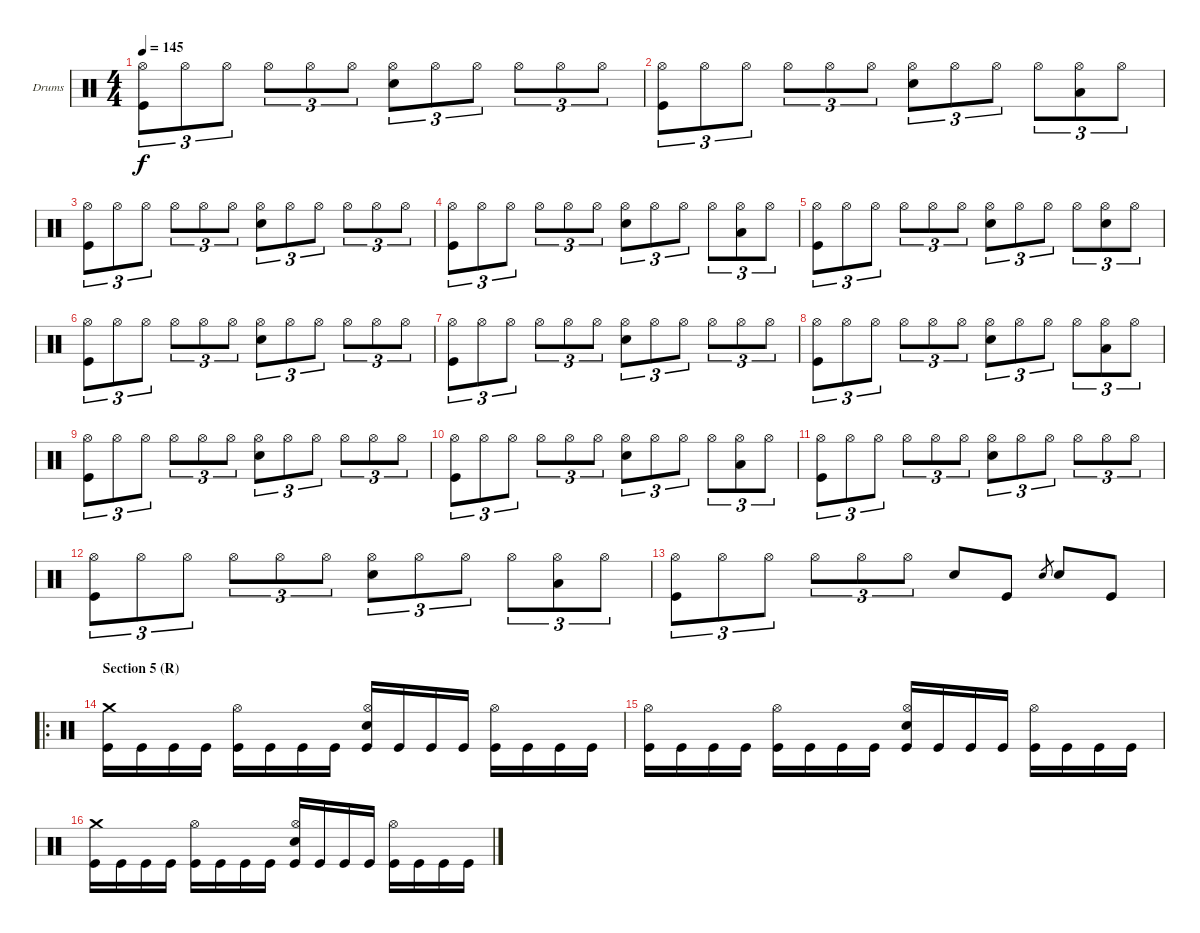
\defaultSystemsLayout 4
\bracketExtendMode groupsimilarinstruments
\firstSystemTrackNameOrientation horizontal
\otherSystemsTrackNameOrientation horizontal
\track ("Drums" "Drums") {instrument percussion}
\staff {score}
\articulation defaults
\ts (4 4)
\tempo 145
\clef neutral
\ks c
("Kick (hit)" "Hi-Hat (open)").8{tu (3 2) dy f} "Hi-Hat (open)".8{tu (3 2)} "Hi-Hat (open)".8{tu (3 2)} "Hi-Hat (open)".8{tu (3 2)} "Hi-Hat (open)".8{tu (3 2)} "Hi-Hat (open)".8{tu (3 2)} ("Snare (hit) 2" "Hi-Hat (open)").8{tu (3 2)} "Hi-Hat (open)".8{tu (3 2)} "Hi-Hat (open)".8{tu (3 2)} "Hi-Hat (open)".8{tu (3 2)} "Hi-Hat (open)".8{tu (3 2)} "Hi-Hat (open)".8{tu (3 2)} |
("Kick (hit)" "Hi-Hat (open)").8{tu (3 2)} "Hi-Hat (open)".8{tu (3 2)} "Hi-Hat (open)".8{tu (3 2)} "Hi-Hat (open)".8{tu (3 2)} "Hi-Hat (open)".8{tu (3 2)} "Hi-Hat (open)".8{tu (3 2)} ("Snare (hit) 2" "Hi-Hat (open)").8{tu (3 2)} "Hi-Hat (open)".8{tu (3 2)} "Hi-Hat (open)".8{tu (3 2)} "Hi-Hat (open)".8{tu (3 2)} ("Hi-Hat (open)" "Low Tom (hit)").8{tu (3 2)} "Hi-Hat (open)".8{tu (3 2)} |
("Kick (hit)" "Hi-Hat (open)").8{tu (3 2)} "Hi-Hat (open)".8{tu (3 2)} "Hi-Hat (open)".8{tu (3 2)} "Hi-Hat (open)".8{tu (3 2)} "Hi-Hat (open)".8{tu (3 2)} "Hi-Hat (open)".8{tu (3 2)} ("Snare (hit) 2" "Hi-Hat (open)").8{tu (3 2)} "Hi-Hat (open)".8{tu (3 2)} "Hi-Hat (open)".8{tu (3 2)} "Hi-Hat (open)".8{tu (3 2)} "Hi-Hat (open)".8{tu (3 2)} "Hi-Hat (open)".8{tu (3 2)} |
("Kick (hit)" "Hi-Hat (open)").8{tu (3 2)} "Hi-Hat (open)".8{tu (3 2)} "Hi-Hat (open)".8{tu (3 2)} "Hi-Hat (open)".8{tu (3 2)} "Hi-Hat (open)".8{tu (3 2)} "Hi-Hat (open)".8{tu (3 2)} ("Snare (hit) 2" "Hi-Hat (open)").8{tu (3 2)} "Hi-Hat (open)".8{tu (3 2)} "Hi-Hat (open)".8{tu (3 2)} "Hi-Hat (open)".8{tu (3 2)} ("Hi-Hat (open)" "Low Tom (hit)").8{tu (3 2)} "Hi-Hat (open)".8{tu (3 2)} |
("Kick (hit)" "Hi-Hat (open)").8{tu (3 2)} "Hi-Hat (open)".8{tu (3 2)} "Hi-Hat (open)".8{tu (3 2)} "Hi-Hat (open)".8{tu (3 2)} "Hi-Hat (open)".8{tu (3 2)} "Hi-Hat (open)".8{tu (3 2)} ("Snare (hit) 2" "Hi-Hat (open)").8{tu (3 2)} "Hi-Hat (open)".8{tu (3 2)} "Hi-Hat (open)".8{tu (3 2)} "Hi-Hat (open)".8{tu (3 2)} ("Hi-Hat (open)" "Snare (hit) 2").8{tu (3 2)} "Hi-Hat (open)".8{tu (3 2)} |
("Kick (hit)" "Hi-Hat (open)").8{tu (3 2)} "Hi-Hat (open)".8{tu (3 2)} "Hi-Hat (open)".8{tu (3 2)} "Hi-Hat (open)".8{tu (3 2)} "Hi-Hat (open)".8{tu (3 2)} "Hi-Hat (open)".8{tu (3 2)} ("Snare (hit) 2" "Hi-Hat (open)").8{tu (3 2)} "Hi-Hat (open)".8{tu (3 2)} "Hi-Hat (open)".8{tu (3 2)} "Hi-Hat (open)".8{tu (3 2)} "Hi-Hat (open)".8{tu (3 2)} "Hi-Hat (open)".8{tu (3 2)} |
("Kick (hit)" "Hi-Hat (open)").8{tu (3 2)} "Hi-Hat (open)".8{tu (3 2)} "Hi-Hat (open)".8{tu (3 2)} "Hi-Hat (open)".8{tu (3 2)} "Hi-Hat (open)".8{tu (3 2)} "Hi-Hat (open)".8{tu (3 2)} ("Snare (hit) 2" "Hi-Hat (open)").8{tu (3 2)} "Hi-Hat (open)".8{tu (3 2)} "Hi-Hat (open)".8{tu (3 2)} "Hi-Hat (open)".8{tu (3 2)} "Hi-Hat (open)".8{tu (3 2)} "Hi-Hat (open)".8{tu (3 2)} |
("Kick (hit)" "Hi-Hat (open)").8{tu (3 2)} "Hi-Hat (open)".8{tu (3 2)} "Hi-Hat (open)".8{tu (3 2)} "Hi-Hat (open)".8{tu (3 2)} "Hi-Hat (open)".8{tu (3 2)} "Hi-Hat (open)".8{tu (3 2)} ("Snare (hit) 2" "Hi-Hat (open)").8{tu (3 2)} "Hi-Hat (open)".8{tu (3 2)} "Hi-Hat (open)".8{tu (3 2)} "Hi-Hat (open)".8{tu (3 2)} ("Hi-Hat (open)" "Low Tom (hit)").8{tu (3 2)} "Hi-Hat (open)".8{tu (3 2)} |
("Kick (hit)" "Hi-Hat (open)").8{tu (3 2)} "Hi-Hat (open)".8{tu (3 2)} "Hi-Hat (open)".8{tu (3 2)} "Hi-Hat (open)".8{tu (3 2)} "Hi-Hat (open)".8{tu (3 2)} "Hi-Hat (open)".8{tu (3 2)} ("Snare (hit) 2" "Hi-Hat (open)").8{tu (3 2)} "Hi-Hat (open)".8{tu (3 2)} "Hi-Hat (open)".8{tu (3 2)} "Hi-Hat (open)".8{tu (3 2)} "Hi-Hat (open)".8{tu (3 2)} "Hi-Hat (open)".8{tu (3 2)} |
("Kick (hit)" "Hi-Hat (open)").8{tu (3 2)} "Hi-Hat (open)".8{tu (3 2)} "Hi-Hat (open)".8{tu (3 2)} "Hi-Hat (open)".8{tu (3 2)} "Hi-Hat (open)".8{tu (3 2)} "Hi-Hat (open)".8{tu (3 2)} ("Snare (hit) 2" "Hi-Hat (open)").8{tu (3 2)} "Hi-Hat (open)".8{tu (3 2)} "Hi-Hat (open)".8{tu (3 2)} "Hi-Hat (open)".8{tu (3 2)} ("Hi-Hat (open)" "Low Tom (hit)").8{tu (3 2)} "Hi-Hat (open)".8{tu (3 2)} |
("Kick (hit)" "Hi-Hat (open)").8{tu (3 2)} "Hi-Hat (open)".8{tu (3 2)} "Hi-Hat (open)".8{tu (3 2)} "Hi-Hat (open)".8{tu (3 2)} "Hi-Hat (open)".8{tu (3 2)} "Hi-Hat (open)".8{tu (3 2)} ("Snare (hit) 2" "Hi-Hat (open)").8{tu (3 2)} "Hi-Hat (open)".8{tu (3 2)} "Hi-Hat (open)".8{tu (3 2)} "Hi-Hat (open)".8{tu (3 2)} "Hi-Hat (open)".8{tu (3 2)} "Hi-Hat (open)".8{tu (3 2)} |
("Kick (hit)" "Hi-Hat (open)").8{tu (3 2)} "Hi-Hat (open)".8{tu (3 2)} "Hi-Hat (open)".8{tu (3 2)} "Hi-Hat (open)".8{tu (3 2)} "Hi-Hat (open)".8{tu (3 2)} "Hi-Hat (open)".8{tu (3 2)} ("Snare (hit) 2" "Hi-Hat (open)").8{tu (3 2)} "Hi-Hat (open)".8{tu (3 2)} "Hi-Hat (open)".8{tu (3 2)} "Hi-Hat (open)".8{tu (3 2)} ("Hi-Hat (open)" "Low Tom (hit)").8{tu (3 2)} "Hi-Hat (open)".8{tu (3 2)} |
("Kick (hit)" "Hi-Hat (open)").8{tu (3 2)} "Hi-Hat (open)".8{tu (3 2)} "Hi-Hat (open)".8{tu (3 2)} "Hi-Hat (open)".8{tu (3 2)} "Hi-Hat (open)".8{tu (3 2)} "Hi-Hat (open)".8{tu (3 2)} "Snare (hit) 2".8 "Kick (hit)".8 "Snare (hit) 2".8{gr} "Snare (hit) 2".8 "Kick (hit)".8 |
\ro
\section ("" "Section 5 (R)")
("Kick (hit)" "Crash medium (hit)").16 "Kick (hit)".16 "Kick (hit)".16 "Kick (hit)".16 ("Kick (hit)" "Hi-Hat (open)").16 "Kick (hit)".16 "Kick (hit)".16 "Kick (hit)".16 ("Snare (hit) 2" "Hi-Hat (open)" "Kick (hit)").16 "Kick (hit)".16 "Kick (hit)".16 "Kick (hit)".16 ("Kick (hit)" "Hi-Hat (open)").16 "Kick (hit)".16 "Kick (hit)".16 "Kick (hit)".16 |
("Kick (hit)" "Hi-Hat (open)").16 "Kick (hit)".16 "Kick (hit)".16 "Kick (hit)".16 ("Kick (hit)" "Hi-Hat (open)").16 "Kick (hit)".16 "Kick (hit)".16 "Kick (hit)".16 ("Snare (hit) 2" "Hi-Hat (open)" "Kick (hit)").16 "Kick (hit)".16 "Kick (hit)".16 "Kick (hit)".16 ("Kick (hit)" "Hi-Hat (open)").16 "Kick (hit)".16 "Kick (hit)".16 "Kick (hit)".16 |
("Kick (hit)" "Crash medium (hit)").16 "Kick (hit)".16 "Kick (hit)".16 "Kick (hit)".16 ("Kick (hit)" "Hi-Hat (open)").16 "Kick (hit)".16 "Kick (hit)".16 "Kick (hit)".16 ("Snare (hit) 2" "Hi-Hat (open)" "Kick (hit)").16 "Kick (hit)".16 "Kick (hit)".16 "Kick (hit)".16 ("Kick (hit)" "Hi-Hat (open)").16 "Kick (hit)".16 "Kick (hit)".16 "Kick (hit)".16
